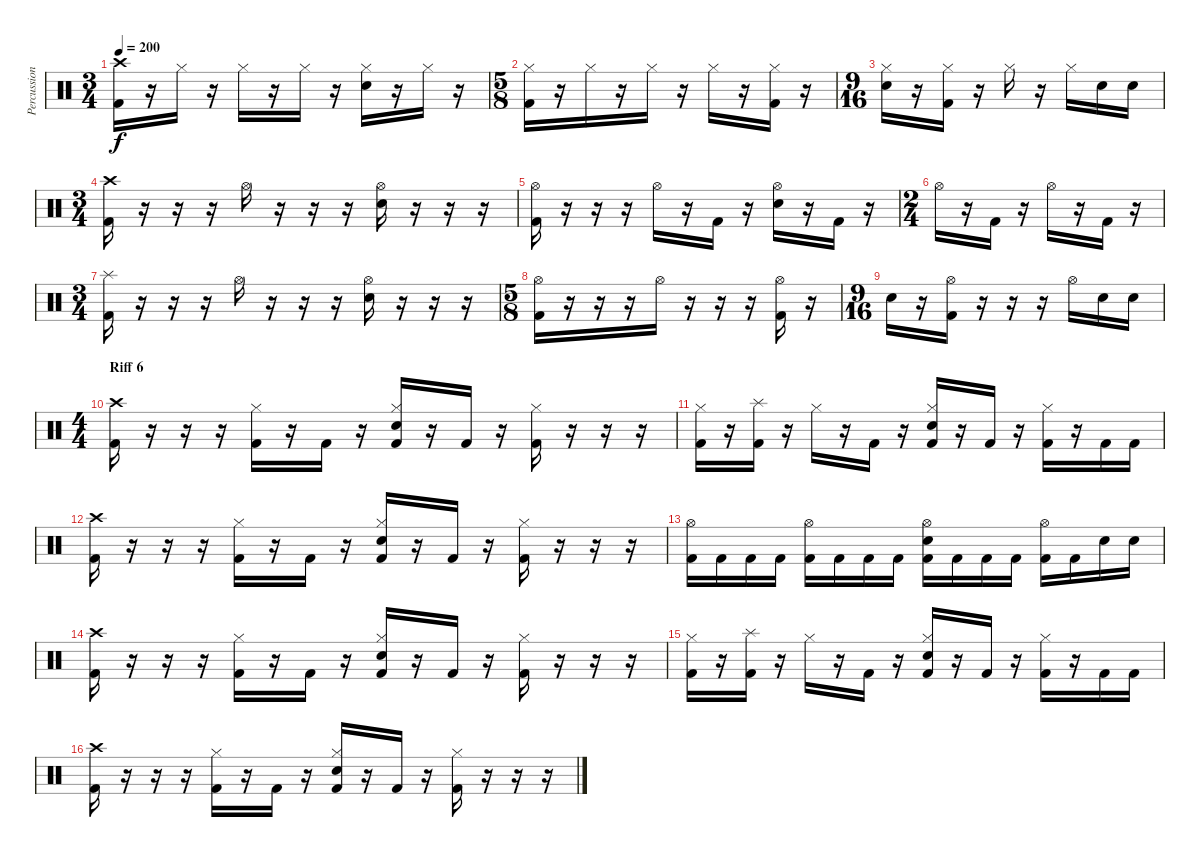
\track ("Percussion" "Percussion") {instrument percussion}
\staff {score}
\articulation defaults
\ts (3 4)
\tempo 200
\clef neutral
\ks c
("Crash high (hit)" "Kick (hit) 2").16{dy f} r.16 "Hi-Hat (closed)".16 r.16 "Hi-Hat (closed)".16 r.16 "Hi-Hat (closed)".16 r.16 ("Hi-Hat (closed)" "Electric Snare (hit)").16 r.16 "Hi-Hat (closed)".16 r.16 |
\ts (5 8)
("Hi-Hat (closed)" "Kick (hit) 2").16 r.16 "Hi-Hat (closed)".16 r.16 "Hi-Hat (closed)".16 r.16 "Hi-Hat (closed)".16 r.16 ("Hi-Hat (closed)" "Kick (hit) 2").16 r.16 |
\ts (9 16)
("Hi-Hat (closed)" "Electric Snare (hit)").16 r.16 ("Hi-Hat (closed)" "Kick (hit) 2").16 r.16 "Hi-Hat (closed)".16 r.16 "Hi-Hat (closed)".16 "Electric Snare (hit)".16 "Electric Snare (hit)".16 |
\ts (3 4)
("Crash high (hit)" "Kick (hit) 2").16 r.16 r.16 r.16 "Hi-Hat (open)".16 r.16 r.16 r.16 ("Hi-Hat (open)" "Electric Snare (hit)").16 r.16 r.16 r.16 |
("Hi-Hat (open)" "Kick (hit) 2").16 r.16 r.16 r.16 "Hi-Hat (open)".16 r.16 "Kick (hit) 2".16 r.16 ("Hi-Hat (open)" "Electric Snare (hit)").16 r.16 "Kick (hit) 2".16 r.16 |
\ts (2 4)
"Hi-Hat (open)".16 r.16 "Kick (hit) 2".16 r.16 "Hi-Hat (open)".16 r.16 "Kick (hit) 2".16 r.16 |
\ts (3 4)
("Splash (hit)" "Kick (hit) 2").16 r.16 r.16 r.16 "Hi-Hat (open)".16 r.16 r.16 r.16 ("Hi-Hat (open)" "Electric Snare (hit)").16 r.16 r.16 r.16 |
\ts (5 8)
("Hi-Hat (open)" "Kick (hit) 2").16 r.16 r.16 r.16 "Hi-Hat (open)".16 r.16 r.16 r.16 ("Hi-Hat (open)" "Kick (hit) 2").16 r.16 |
\ts (9 16)
"Electric Snare (hit)".16 r.16 ("Hi-Hat (open)" "Kick (hit) 2").16 r.16 r.16 r.16 "Hi-Hat (open)".16 "Electric Snare (hit)".16 "Electric Snare (hit)".16 |
\ts (4 4)
\section ("" "Riff 6")
("Crash high (hit)" "Kick (hit) 2").16 r.16 r.16 r.16 ("Hi-Hat (closed)" "Kick (hit) 2").16 r.16 "Kick (hit) 2".16 r.16 ("Hi-Hat (closed)" "Electric Snare (hit)" "Kick (hit) 2").16 r.16 "Kick (hit) 2".16 r.16 ("Hi-Hat (closed)" "Kick (hit) 2").16 r.16 r.16 r.16 |
("Hi-Hat (closed)" "Kick (hit) 2").16 r.16 ("Splash (hit)" "Kick (hit) 2").16 r.16 "Hi-Hat (closed)".16 r.16 "Kick (hit) 2".16 r.16 ("Hi-Hat (closed)" "Electric Snare (hit)" "Kick (hit) 2").16 r.16 "Kick (hit) 2".16 r.16 ("Hi-Hat (closed)" "Kick (hit) 2").16 r.16 "Kick (hit) 2".16 "Kick (hit) 2".16 |
("Crash high (hit)" "Kick (hit) 2").16 r.16 r.16 r.16 ("Hi-Hat (closed)" "Kick (hit) 2").16 r.16 "Kick (hit) 2".16 r.16 ("Hi-Hat (closed)" "Electric Snare (hit)" "Kick (hit) 2").16 r.16 "Kick (hit) 2".16 r.16 ("Hi-Hat (closed)" "Kick (hit) 2").16 r.16 r.16 r.16 |
("Hi-Hat (open)" "Kick (hit) 2").16 "Kick (hit) 2".16 "Kick (hit) 2".16 "Kick (hit) 2".16 ("Hi-Hat (open)" "Kick (hit) 2").16 "Kick (hit) 2".16 "Kick (hit) 2".16 "Kick (hit) 2".16 ("Hi-Hat (open)" "Electric Snare (hit)" "Kick (hit) 2").16 "Kick (hit) 2".16 "Kick (hit) 2".16 "Kick (hit) 2".16 ("Hi-Hat (open)" "Kick (hit) 2").16 "Kick (hit) 2".16 "Electric Snare (hit)".16 "Electric Snare (hit)".16 |
("Crash high (hit)" "Kick (hit) 2").16 r.16 r.16 r.16 ("Hi-Hat (closed)" "Kick (hit) 2").16 r.16 "Kick (hit) 2".16 r.16 ("Hi-Hat (closed)" "Electric Snare (hit)" "Kick (hit) 2").16 r.16 "Kick (hit) 2".16 r.16 ("Hi-Hat (closed)" "Kick (hit) 2").16 r.16 r.16 r.16 |
("Hi-Hat (closed)" "Kick (hit) 2").16 r.16 ("Splash (hit)" "Kick (hit) 2").16 r.16 "Hi-Hat (closed)".16 r.16 "Kick (hit) 2".16 r.16 ("Hi-Hat (closed)" "Electric Snare (hit)" "Kick (hit) 2").16 r.16 "Kick (hit) 2".16 r.16 ("Hi-Hat (closed)" "Kick (hit) 2").16 r.16 "Kick (hit) 2".16 "Kick (hit) 2".16 |
("Crash high (hit)" "Kick (hit) 2").16 r.16 r.16 r.16 ("Hi-Hat (closed)" "Kick (hit) 2").16 r.16 "Kick (hit) 2".16 r.16 ("Hi-Hat (closed)" "Electric Snare (hit)" "Kick (hit) 2").16 r.16 "Kick (hit) 2".16 r.16 ("Hi-Hat (closed)" "Kick (hit) 2").16 r.16 r.16 r.16
